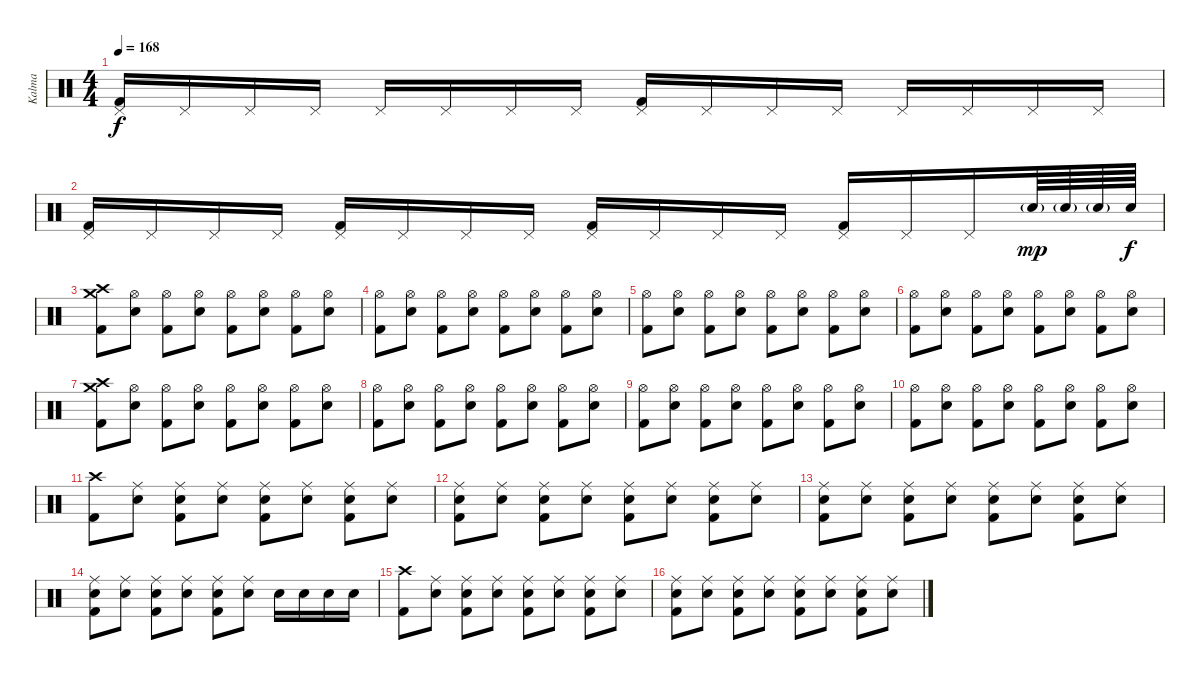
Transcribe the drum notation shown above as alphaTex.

\track ("Kalma" "Kalma") {instrument percussion}
\staff {score}
\articulation defaults
\ts (4 4)
\tempo 168
\clef neutral
\ks c
("Pedal Hi-Hat (hit)" "Kick (hit) 2").16{dy f} "Pedal Hi-Hat (hit)".16 "Pedal Hi-Hat (hit)".16 "Pedal Hi-Hat (hit)".16 "Pedal Hi-Hat (hit)".16 "Pedal Hi-Hat (hit)".16 "Pedal Hi-Hat (hit)".16 "Pedal Hi-Hat (hit)".16 ("Pedal Hi-Hat (hit)" "Kick (hit) 2").16 "Pedal Hi-Hat (hit)".16 "Pedal Hi-Hat (hit)".16 "Pedal Hi-Hat (hit)".16 "Pedal Hi-Hat (hit)".16 "Pedal Hi-Hat (hit)".16 "Pedal Hi-Hat (hit)".16 "Pedal Hi-Hat (hit)".16 |
("Pedal Hi-Hat (hit)" "Kick (hit) 2").16 "Pedal Hi-Hat (hit)".16 "Pedal Hi-Hat (hit)".16 "Pedal Hi-Hat (hit)".16 ("Pedal Hi-Hat (hit)" "Kick (hit) 2").16 "Pedal Hi-Hat (hit)".16 "Pedal Hi-Hat (hit)".16 "Pedal Hi-Hat (hit)".16 ("Pedal Hi-Hat (hit)" "Kick (hit) 2").16 "Pedal Hi-Hat (hit)".16 "Pedal Hi-Hat (hit)".16 "Pedal Hi-Hat (hit)".16 ("Pedal Hi-Hat (hit)" "Kick (hit) 2").16 "Pedal Hi-Hat (hit)".16 "Pedal Hi-Hat (hit)".16 "Snare (hit) 2"{g}.64{dy mp} "Snare (hit) 2"{g}.64 "Snare (hit) 2"{g}.64 "Snare (hit) 2".64{dy f} |
("Crash high (hit)" "Crash medium (hit)" "Kick (hit) 2").8 ("Hi-Hat (open)" "Snare (hit) 2").8 ("Hi-Hat (open)" "Kick (hit) 2").8 ("Hi-Hat (open)" "Snare (hit) 2").8 ("Hi-Hat (open)" "Kick (hit) 2").8 ("Hi-Hat (open)" "Snare (hit) 2").8 ("Hi-Hat (open)" "Kick (hit) 2").8 ("Hi-Hat (open)" "Snare (hit) 2").8 |
("Hi-Hat (open)" "Kick (hit) 2").8 ("Hi-Hat (open)" "Snare (hit) 2").8 ("Hi-Hat (open)" "Kick (hit) 2").8 ("Hi-Hat (open)" "Snare (hit) 2").8 ("Hi-Hat (open)" "Kick (hit) 2").8 ("Hi-Hat (open)" "Snare (hit) 2").8 ("Hi-Hat (open)" "Kick (hit) 2").8 ("Hi-Hat (open)" "Snare (hit) 2").8 |
("Hi-Hat (open)" "Kick (hit) 2").8 ("Hi-Hat (open)" "Snare (hit) 2").8 ("Hi-Hat (open)" "Kick (hit) 2").8 ("Hi-Hat (open)" "Snare (hit) 2").8 ("Hi-Hat (open)" "Kick (hit) 2").8 ("Hi-Hat (open)" "Snare (hit) 2").8 ("Hi-Hat (open)" "Kick (hit) 2").8 ("Hi-Hat (open)" "Snare (hit) 2").8 |
("Hi-Hat (open)" "Kick (hit) 2").8 ("Hi-Hat (open)" "Snare (hit) 2").8 ("Hi-Hat (open)" "Kick (hit) 2").8 ("Hi-Hat (open)" "Snare (hit) 2").8 ("Hi-Hat (open)" "Kick (hit) 2").8 ("Hi-Hat (open)" "Snare (hit) 2").8 ("Hi-Hat (open)" "Kick (hit) 2").8 ("Hi-Hat (open)" "Snare (hit) 2").8 |
("Crash high (hit)" "Crash medium (hit)" "Kick (hit) 2").8 ("Hi-Hat (open)" "Snare (hit) 2").8 ("Hi-Hat (open)" "Kick (hit) 2").8 ("Hi-Hat (open)" "Snare (hit) 2").8 ("Hi-Hat (open)" "Kick (hit) 2").8 ("Hi-Hat (open)" "Snare (hit) 2").8 ("Hi-Hat (open)" "Kick (hit) 2").8 ("Hi-Hat (open)" "Snare (hit) 2").8 |
("Hi-Hat (open)" "Kick (hit) 2").8 ("Hi-Hat (open)" "Snare (hit) 2").8 ("Hi-Hat (open)" "Kick (hit) 2").8 ("Hi-Hat (open)" "Snare (hit) 2").8 ("Hi-Hat (open)" "Kick (hit) 2").8 ("Hi-Hat (open)" "Snare (hit) 2").8 ("Hi-Hat (open)" "Kick (hit) 2").8 ("Hi-Hat (open)" "Snare (hit) 2").8 |
("Hi-Hat (open)" "Kick (hit) 2").8 ("Hi-Hat (open)" "Snare (hit) 2").8 ("Hi-Hat (open)" "Kick (hit) 2").8 ("Hi-Hat (open)" "Snare (hit) 2").8 ("Hi-Hat (open)" "Kick (hit) 2").8 ("Hi-Hat (open)" "Snare (hit) 2").8 ("Hi-Hat (open)" "Kick (hit) 2").8 ("Hi-Hat (open)" "Snare (hit) 2").8 |
("Hi-Hat (open)" "Kick (hit) 2").8 ("Hi-Hat (open)" "Snare (hit) 2").8 ("Hi-Hat (open)" "Kick (hit) 2").8 ("Hi-Hat (open)" "Snare (hit) 2").8 ("Hi-Hat (open)" "Kick (hit) 2").8 ("Hi-Hat (open)" "Snare (hit) 2").8 ("Hi-Hat (open)" "Kick (hit) 2").8 ("Hi-Hat (open)" "Snare (hit) 2").8 |
("Crash high (hit)" "Kick (hit) 2").8 ("Ride (middle)" "Snare (hit) 2").8 ("Ride (middle)" "Snare (hit) 2" "Kick (hit) 2").8 ("Ride (middle)" "Snare (hit) 2").8 ("Ride (middle)" "Snare (hit) 2" "Kick (hit) 2").8 ("Ride (middle)" "Snare (hit) 2").8 ("Ride (middle)" "Snare (hit) 2" "Kick (hit) 2").8 ("Ride (middle)" "Snare (hit) 2").8 |
("Ride (middle)" "Snare (hit) 2" "Kick (hit) 2").8 ("Ride (middle)" "Snare (hit) 2").8 ("Ride (middle)" "Snare (hit) 2" "Kick (hit) 2").8 ("Ride (middle)" "Snare (hit) 2").8 ("Ride (middle)" "Snare (hit) 2" "Kick (hit) 2").8 ("Ride (middle)" "Snare (hit) 2").8 ("Ride (middle)" "Snare (hit) 2" "Kick (hit) 2").8 ("Ride (middle)" "Snare (hit) 2").8 |
("Ride (middle)" "Snare (hit) 2" "Kick (hit) 2").8 ("Ride (middle)" "Snare (hit) 2").8 ("Ride (middle)" "Snare (hit) 2" "Kick (hit) 2").8 ("Ride (middle)" "Snare (hit) 2").8 ("Ride (middle)" "Snare (hit) 2" "Kick (hit) 2").8 ("Ride (middle)" "Snare (hit) 2").8 ("Ride (middle)" "Snare (hit) 2" "Kick (hit) 2").8 ("Ride (middle)" "Snare (hit) 2").8 |
("Ride (middle)" "Snare (hit) 2" "Kick (hit) 2").8 ("Ride (middle)" "Snare (hit) 2").8 ("Ride (middle)" "Snare (hit) 2" "Kick (hit) 2").8 ("Ride (middle)" "Snare (hit) 2").8 ("Ride (middle)" "Snare (hit) 2" "Kick (hit) 2").8 ("Ride (middle)" "Snare (hit) 2").8 "Snare (hit) 2".16 "Snare (hit) 2".16 "Snare (hit) 2".16 "Snare (hit) 2".16 |
("Crash high (hit)" "Kick (hit) 2").8 ("Ride (middle)" "Snare (hit) 2").8 ("Ride (middle)" "Snare (hit) 2" "Kick (hit) 2").8 ("Ride (middle)" "Snare (hit) 2").8 ("Ride (middle)" "Snare (hit) 2" "Kick (hit) 2").8 ("Ride (middle)" "Snare (hit) 2").8 ("Ride (middle)" "Snare (hit) 2" "Kick (hit) 2").8 ("Ride (middle)" "Snare (hit) 2").8 |
("Ride (middle)" "Snare (hit) 2" "Kick (hit) 2").8 ("Ride (middle)" "Snare (hit) 2").8 ("Ride (middle)" "Snare (hit) 2" "Kick (hit) 2").8 ("Ride (middle)" "Snare (hit) 2").8 ("Ride (middle)" "Snare (hit) 2" "Kick (hit) 2").8 ("Ride (middle)" "Snare (hit) 2").8 ("Ride (middle)" "Snare (hit) 2" "Kick (hit) 2").8 ("Ride (middle)" "Snare (hit) 2").8
